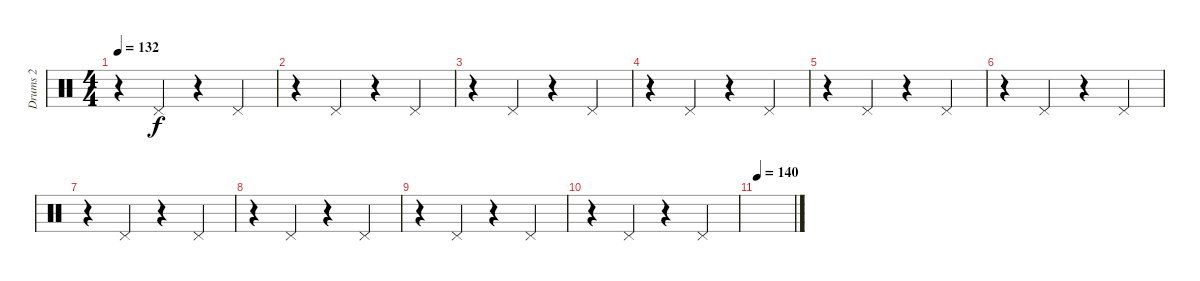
\track ("Drums 2" "Drums 2") {instrument percussion}
\staff {score}
\articulation defaults
\ts (4 4)
\tempo 132
\clef neutral
\ks c
r.4{dy f} "Pedal Hi-Hat (hit)".4 r.4 "Pedal Hi-Hat (hit)".4 |
r.4 "Pedal Hi-Hat (hit)".4 r.4 "Pedal Hi-Hat (hit)".4 |
r.4 "Pedal Hi-Hat (hit)".4 r.4 "Pedal Hi-Hat (hit)".4 |
r.4 "Pedal Hi-Hat (hit)".4 r.4 "Pedal Hi-Hat (hit)".4 |
r.4 "Pedal Hi-Hat (hit)".4 r.4 "Pedal Hi-Hat (hit)".4 |
r.4 "Pedal Hi-Hat (hit)".4 r.4 "Pedal Hi-Hat (hit)".4 |
r.4 "Pedal Hi-Hat (hit)".4 r.4 "Pedal Hi-Hat (hit)".4 |
r.4 "Pedal Hi-Hat (hit)".4 r.4 "Pedal Hi-Hat (hit)".4 |
r.4 "Pedal Hi-Hat (hit)".4 r.4 "Pedal Hi-Hat (hit)".4 |
r.4 "Pedal Hi-Hat (hit)".4 r.4 "Pedal Hi-Hat (hit)".4 |
\tempo 140
